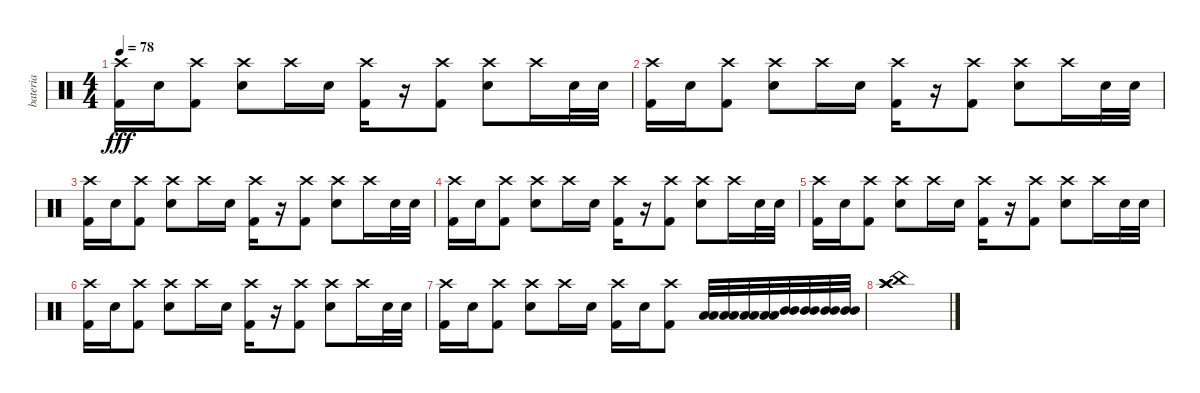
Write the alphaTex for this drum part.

\track ("bateria" "bateria") {instrument percussion}
\staff {score}
\articulation defaults
\ts (4 4)
\tempo 78
\clef neutral
\ks c
("Kick (hit) 2" "Crash high (hit)").16{dy fff} "Electric Snare (hit)".16 ("Kick (hit) 2" "Crash high (hit)").8 ("Electric Snare (hit)" "Crash high (hit)").8 "Crash high (hit)".16 "Electric Snare (hit)".16 ("Kick (hit) 2" "Crash high (hit)").16 r.16 ("Kick (hit) 2" "Crash high (hit)").8 ("Electric Snare (hit)" "Crash high (hit)").8 "Crash high (hit)".16 "Electric Snare (hit)".32 "Electric Snare (hit)".32 |
("Kick (hit) 2" "Crash high (hit)").16 "Electric Snare (hit)".16 ("Kick (hit) 2" "Crash high (hit)").8 ("Electric Snare (hit)" "Crash high (hit)").8 "Crash high (hit)".16 "Electric Snare (hit)".16 ("Kick (hit) 2" "Crash high (hit)").16 r.16 ("Kick (hit) 2" "Crash high (hit)").8 ("Electric Snare (hit)" "Crash high (hit)").8 "Crash high (hit)".16 "Electric Snare (hit)".32 "Electric Snare (hit)".32 |
("Kick (hit) 2" "Crash high (hit)").16 "Electric Snare (hit)".16 ("Kick (hit) 2" "Crash high (hit)").8 ("Electric Snare (hit)" "Crash high (hit)").8 "Crash high (hit)".16 "Electric Snare (hit)".16 ("Kick (hit) 2" "Crash high (hit)").16 r.16 ("Kick (hit) 2" "Crash high (hit)").8 ("Electric Snare (hit)" "Crash high (hit)").8 "Crash high (hit)".16 "Electric Snare (hit)".32 "Electric Snare (hit)".32 |
("Kick (hit) 2" "Crash high (hit)").16 "Electric Snare (hit)".16 ("Kick (hit) 2" "Crash high (hit)").8 ("Electric Snare (hit)" "Crash high (hit)").8 "Crash high (hit)".16 "Electric Snare (hit)".16 ("Kick (hit) 2" "Crash high (hit)").16 r.16 ("Kick (hit) 2" "Crash high (hit)").8 ("Electric Snare (hit)" "Crash high (hit)").8 "Crash high (hit)".16 "Electric Snare (hit)".32 "Electric Snare (hit)".32 |
("Kick (hit) 2" "Crash high (hit)").16 "Electric Snare (hit)".16 ("Kick (hit) 2" "Crash high (hit)").8 ("Electric Snare (hit)" "Crash high (hit)").8 "Crash high (hit)".16 "Electric Snare (hit)".16 ("Kick (hit) 2" "Crash high (hit)").16 r.16 ("Kick (hit) 2" "Crash high (hit)").8 ("Electric Snare (hit)" "Crash high (hit)").8 "Crash high (hit)".16 "Electric Snare (hit)".32 "Electric Snare (hit)".32 |
("Kick (hit) 2" "Crash high (hit)").16 "Electric Snare (hit)".16 ("Kick (hit) 2" "Crash high (hit)").8 ("Electric Snare (hit)" "Crash high (hit)").8 "Crash high (hit)".16 "Electric Snare (hit)".16 ("Kick (hit) 2" "Crash high (hit)").16 r.16 ("Kick (hit) 2" "Crash high (hit)").8 ("Electric Snare (hit)" "Crash high (hit)").8 "Crash high (hit)".16 "Electric Snare (hit)".32 "Electric Snare (hit)".32 |
("Kick (hit) 2" "Crash high (hit)").16 "Electric Snare (hit)".16 ("Kick (hit) 2" "Crash high (hit)").8 ("Electric Snare (hit)" "Crash high (hit)").8 "Crash high (hit)".16 "Electric Snare (hit)".16 ("Kick (hit) 2" "Crash high (hit)").16 "Electric Snare (hit)".16 ("Kick (hit) 2" "Crash high (hit)").8 ("Low Tom (hit)" "Low Tom (hit)").32 ("Low Tom (hit)" "Low Tom (hit)").32 ("Low Tom (hit)" "Low Tom (hit)").32 ("Low Tom (hit)" "Low Tom (hit)").32 ("Mid Tom (hit)" "Mid Tom (hit)").32 ("Mid Tom (hit)" "Mid Tom (hit)").32 ("Mid Tom (hit)" "Mid Tom (hit)").32 ("Mid Tom (hit)" "Mid Tom (hit)").32 |
("Crash high (hit)" "Crash high (hit)" "Crash high (hit)" "China (hit)").1
